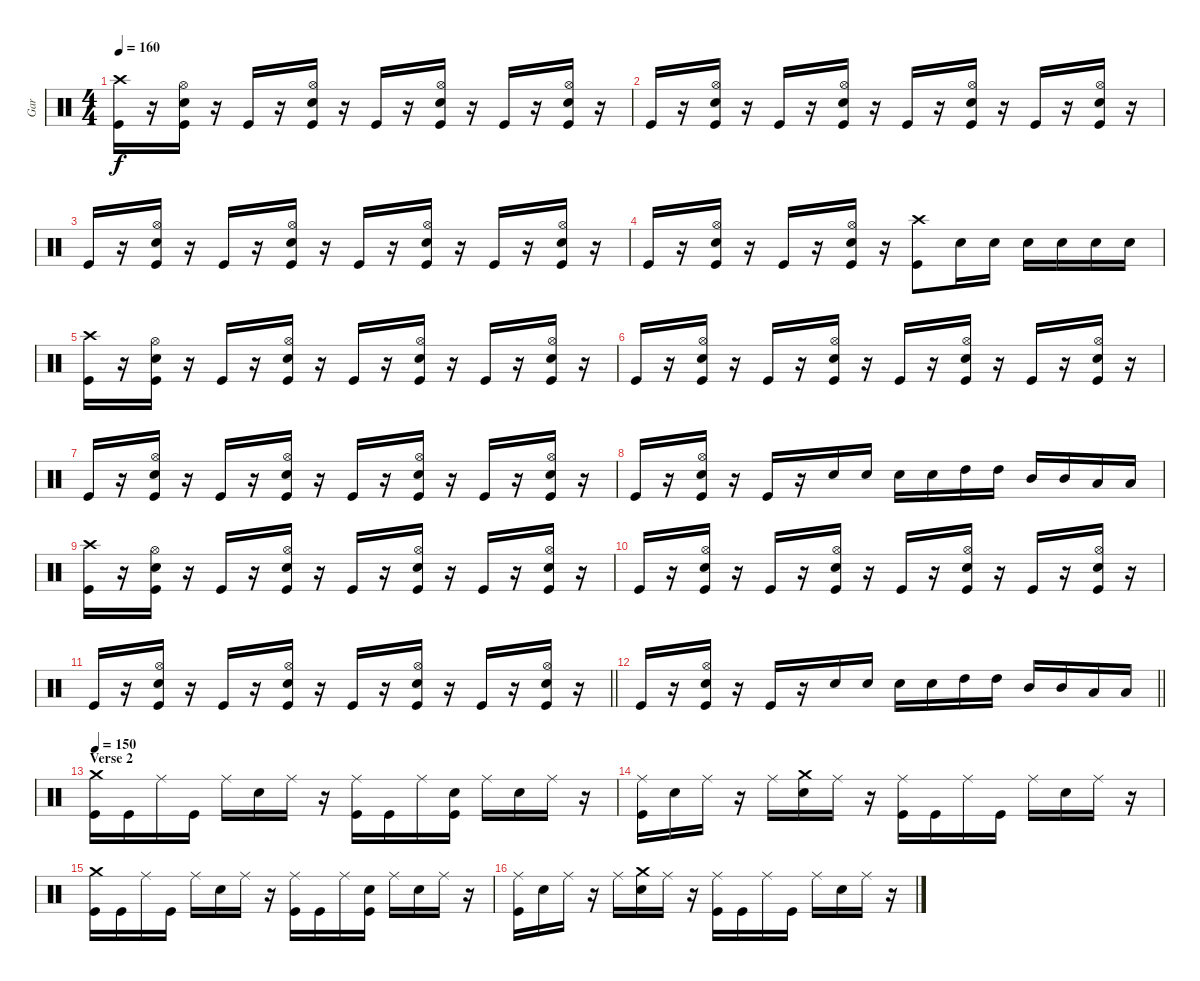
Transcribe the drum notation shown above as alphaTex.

\track ("Gar" "Gar") {instrument percussion}
\staff {score}
\articulation defaults
\ts (4 4)
\tempo 160
\clef neutral
\ks c
("Crash high (hit)" "Kick (hit)").16{dy f} r.16 ("Hi-Hat (open)" "Snare (hit) 2" "Kick (hit)").16 r.16 "Kick (hit)".16 r.16 ("Hi-Hat (open)" "Snare (hit) 2" "Kick (hit)").16 r.16 "Kick (hit)".16 r.16 ("Hi-Hat (open)" "Snare (hit) 2" "Kick (hit)").16 r.16 "Kick (hit)".16 r.16 ("Hi-Hat (open)" "Snare (hit) 2" "Kick (hit)").16 r.16 |
"Kick (hit)".16 r.16 ("Hi-Hat (open)" "Snare (hit) 2" "Kick (hit)").16 r.16 "Kick (hit)".16 r.16 ("Hi-Hat (open)" "Snare (hit) 2" "Kick (hit)").16 r.16 "Kick (hit)".16 r.16 ("Hi-Hat (open)" "Snare (hit) 2" "Kick (hit)").16 r.16 "Kick (hit)".16 r.16 ("Hi-Hat (open)" "Snare (hit) 2" "Kick (hit)").16 r.16 |
"Kick (hit)".16 r.16 ("Hi-Hat (open)" "Snare (hit) 2" "Kick (hit)").16 r.16 "Kick (hit)".16 r.16 ("Hi-Hat (open)" "Snare (hit) 2" "Kick (hit)").16 r.16 "Kick (hit)".16 r.16 ("Hi-Hat (open)" "Snare (hit) 2" "Kick (hit)").16 r.16 "Kick (hit)".16 r.16 ("Hi-Hat (open)" "Snare (hit) 2" "Kick (hit)").16 r.16 |
"Kick (hit)".16 r.16 ("Hi-Hat (open)" "Snare (hit) 2" "Kick (hit)").16 r.16 "Kick (hit)".16 r.16 ("Hi-Hat (open)" "Snare (hit) 2" "Kick (hit)").16 r.16 ("Crash high (hit)" "Kick (hit)").8 "Snare (hit) 2".16 "Snare (hit) 2".16 "Snare (hit) 2".16 "Snare (hit) 2".16 "Snare (hit) 2".16 "Snare (hit) 2".16 |
("Crash high (hit)" "Kick (hit)").16 r.16 ("Hi-Hat (open)" "Snare (hit) 2" "Kick (hit)").16 r.16 "Kick (hit)".16 r.16 ("Hi-Hat (open)" "Snare (hit) 2" "Kick (hit)").16 r.16 "Kick (hit)".16 r.16 ("Hi-Hat (open)" "Snare (hit) 2" "Kick (hit)").16 r.16 "Kick (hit)".16 r.16 ("Hi-Hat (open)" "Snare (hit) 2" "Kick (hit)").16 r.16 |
"Kick (hit)".16 r.16 ("Hi-Hat (open)" "Snare (hit) 2" "Kick (hit)").16 r.16 "Kick (hit)".16 r.16 ("Hi-Hat (open)" "Snare (hit) 2" "Kick (hit)").16 r.16 "Kick (hit)".16 r.16 ("Hi-Hat (open)" "Snare (hit) 2" "Kick (hit)").16 r.16 "Kick (hit)".16 r.16 ("Hi-Hat (open)" "Snare (hit) 2" "Kick (hit)").16 r.16 |
"Kick (hit)".16 r.16 ("Hi-Hat (open)" "Snare (hit) 2" "Kick (hit)").16 r.16 "Kick (hit)".16 r.16 ("Hi-Hat (open)" "Snare (hit) 2" "Kick (hit)").16 r.16 "Kick (hit)".16 r.16 ("Hi-Hat (open)" "Snare (hit) 2" "Kick (hit)").16 r.16 "Kick (hit)".16 r.16 ("Hi-Hat (open)" "Snare (hit) 2" "Kick (hit)").16 r.16 |
"Kick (hit)".16 r.16 ("Hi-Hat (open)" "Snare (hit) 2" "Kick (hit)").16 r.16 "Kick (hit)".16 r.16 "Snare (hit) 2".16 "Snare (hit) 2".16 "Snare (hit) 2".16 "Snare (hit) 2".16 "High Tom (hit)".16 "High Tom (hit)".16 "Mid Tom (hit)".16 "Mid Tom (hit)".16 "Low Tom (hit)".16 "Low Tom (hit)".16 |
("Crash high (hit)" "Kick (hit)").16 r.16 ("Hi-Hat (open)" "Snare (hit) 2" "Kick (hit)").16 r.16 "Kick (hit)".16 r.16 ("Hi-Hat (open)" "Snare (hit) 2" "Kick (hit)").16 r.16 "Kick (hit)".16 r.16 ("Hi-Hat (open)" "Snare (hit) 2" "Kick (hit)").16 r.16 "Kick (hit)".16 r.16 ("Hi-Hat (open)" "Snare (hit) 2" "Kick (hit)").16 r.16 |
"Kick (hit)".16 r.16 ("Hi-Hat (open)" "Snare (hit) 2" "Kick (hit)").16 r.16 "Kick (hit)".16 r.16 ("Hi-Hat (open)" "Snare (hit) 2" "Kick (hit)").16 r.16 "Kick (hit)".16 r.16 ("Hi-Hat (open)" "Snare (hit) 2" "Kick (hit)").16 r.16 "Kick (hit)".16 r.16 ("Hi-Hat (open)" "Snare (hit) 2" "Kick (hit)").16 r.16 |
\barLineRight lightlight "Kick (hit)".16
r.16 ("Hi-Hat (open)" "Snare (hit) 2" "Kick (hit)").16 r.16 "Kick (hit)".16 r.16 ("Hi-Hat (open)" "Snare (hit) 2" "Kick (hit)").16 r.16 "Kick (hit)".16 r.16 ("Hi-Hat (open)" "Snare (hit) 2" "Kick (hit)").16 r.16 "Kick (hit)".16 r.16 ("Hi-Hat (open)" "Snare (hit) 2" "Kick (hit)").16 r.16 |
\barLineRight lightlight "Kick (hit)".16
r.16 ("Hi-Hat (open)" "Snare (hit) 2" "Kick (hit)").16 r.16 "Kick (hit)".16 r.16 "Snare (hit) 2".16 "Snare (hit) 2".16 "Snare (hit) 2".16 "Snare (hit) 2".16 "High Tom (hit)".16 "High Tom (hit)".16 "Mid Tom (hit)".16 "Mid Tom (hit)".16 "Low Tom (hit)".16 "Low Tom (hit)".16 |
\section ("" "Verse 2")
\tempo 150
("Crash medium (hit)" "Kick (hit)").16 "Kick (hit)".16 "Ride (middle)".16 "Kick (hit)".16 "Ride (middle)".16 "Snare (hit) 2".16 "Ride (middle)".16 r.16 ("Ride (middle)" "Kick (hit)").16 "Kick (hit)".16 "Ride (middle)".16 ("Snare (hit) 2" "Kick (hit)").16 "Ride (middle)".16 "Snare (hit) 2".16 "Ride (middle)".16 r.16 |
("Ride (middle)" "Kick (hit)").16 "Snare (hit) 2".16 "Ride (middle)".16 r.16 "Ride (middle)".16 ("Crash medium (hit)" "Snare (hit) 2").16 "Ride (middle)".16 r.16 ("Ride (middle)" "Kick (hit)").16 "Kick (hit)".16 "Ride (middle)".16 "Kick (hit)".16 "Ride (middle)".16 "Snare (hit) 2".16 "Ride (middle)".16 r.16 |
("Crash medium (hit)" "Kick (hit)").16 "Kick (hit)".16 "Ride (middle)".16 "Kick (hit)".16 "Ride (middle)".16 "Snare (hit) 2".16 "Ride (middle)".16 r.16 ("Ride (middle)" "Kick (hit)").16 "Kick (hit)".16 "Ride (middle)".16 ("Snare (hit) 2" "Kick (hit)").16 "Ride (middle)".16 "Snare (hit) 2".16 "Ride (middle)".16 r.16 |
("Ride (middle)" "Kick (hit)").16 "Snare (hit) 2".16 "Ride (middle)".16 r.16 "Ride (middle)".16 ("Crash medium (hit)" "Snare (hit) 2").16 "Ride (middle)".16 r.16 ("Ride (middle)" "Kick (hit)").16 "Kick (hit)".16 "Ride (middle)".16 "Kick (hit)".16 "Ride (middle)".16 "Snare (hit) 2".16 "Ride (middle)".16 r.16
